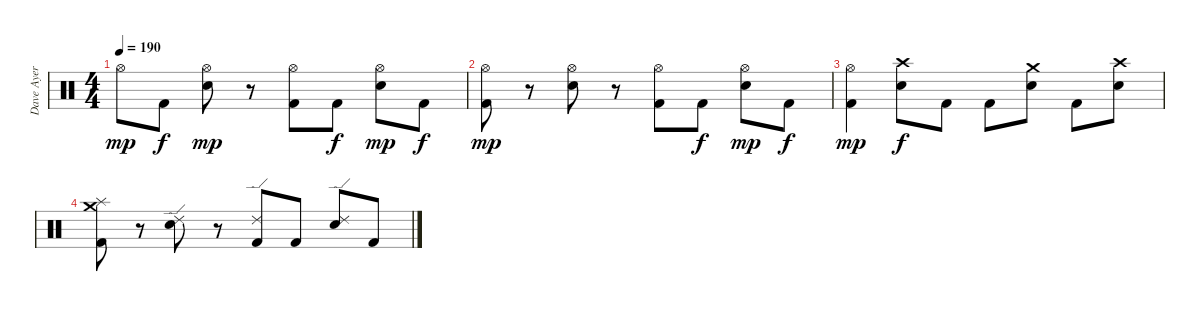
\track ("Dave Ayer" "Dave Ayer") {instrument percussion}
\staff {score}
\articulation defaults
\ts (4 4)
\tempo 190
\clef neutral
\ks c "Hi-Hat (open)".8{dy mp} "Kick (hit) 2".8{dy f}
("Hi-Hat (open)" "Snare (hit) 2").8{dy mp} r.8 ("Hi-Hat (open)" "Kick (hit) 2").8 "Kick (hit) 2".8{dy f} ("Hi-Hat (open)" "Snare (hit) 2").8{dy mp} "Kick (hit) 2".8{dy f} |
("Hi-Hat (open)" "Kick (hit) 2").8{dy mp} r.8 ("Hi-Hat (open)" "Snare (hit) 2").8 r.8 ("Hi-Hat (open)" "Kick (hit) 2").8 "Kick (hit) 2".8{dy f} ("Hi-Hat (open)" "Snare (hit) 2").8{dy mp} "Kick (hit) 2".8{dy f} |
("Hi-Hat (open)" "Kick (hit) 2").4{dy mp} ("Crash high (hit)" "Snare (hit) 2").8{dy f} "Kick (hit) 2".8 "Kick (hit) 2".8 ("Crash medium (hit)" "Snare (hit) 2").8 "Kick (hit) 2".8 ("Crash high (hit)" "Snare (hit) 2").8 |
("Crash medium (hit)" "Splash (hit)" "Kick (hit) 2").8 r.8 ("Ride (edge) 2" "Snare (hit) 2").8 r.8 ("Ride (edge) 2" "Kick (hit) 2").8 "Kick (hit) 2".8 ("Ride (edge) 2" "Snare (hit) 2").8 "Kick (hit) 2".8
